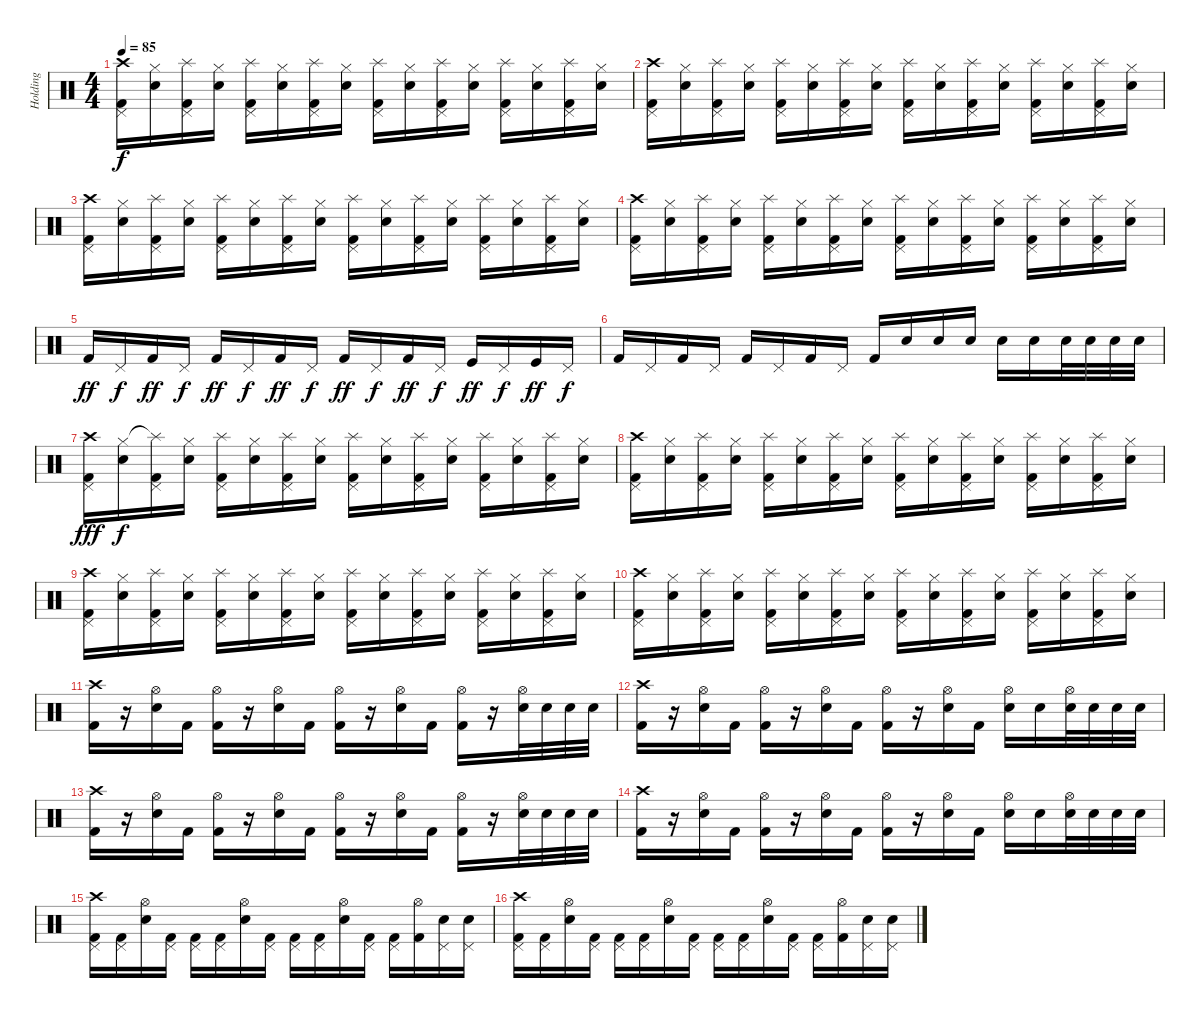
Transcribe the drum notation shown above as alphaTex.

\track ("Holding" "Holding") {instrument percussion}
\staff {score}
\articulation defaults
\ts (4 4)
\tempo 85
\clef neutral
\ks c
("Crash high (hit)" "Pedal Hi-Hat (hit)" "Kick (hit) 2").16{dy f} ("Hi-Hat (closed)" "Electric Snare (hit)").16 ("Splash (hit)" "Pedal Hi-Hat (hit)" "Kick (hit) 2").16 ("Hi-Hat (closed)" "Electric Snare (hit)").16 ("Splash (hit)" "Pedal Hi-Hat (hit)" "Kick (hit) 2").16 ("Hi-Hat (closed)" "Electric Snare (hit)").16 ("Splash (hit)" "Pedal Hi-Hat (hit)" "Kick (hit) 2").16 ("Hi-Hat (closed)" "Electric Snare (hit)").16 ("Splash (hit)" "Pedal Hi-Hat (hit)" "Kick (hit) 2").16 ("Hi-Hat (closed)" "Electric Snare (hit)").16 ("Splash (hit)" "Pedal Hi-Hat (hit)" "Kick (hit) 2").16 ("Hi-Hat (closed)" "Electric Snare (hit)").16 ("Splash (hit)" "Pedal Hi-Hat (hit)" "Kick (hit) 2").16 ("Hi-Hat (closed)" "Electric Snare (hit)").16 ("Splash (hit)" "Pedal Hi-Hat (hit)" "Kick (hit) 2").16 ("Hi-Hat (closed)" "Electric Snare (hit)").16 |
("Crash high (hit)" "Pedal Hi-Hat (hit)" "Kick (hit) 2").16 ("Hi-Hat (closed)" "Electric Snare (hit)").16 ("Splash (hit)" "Pedal Hi-Hat (hit)" "Kick (hit) 2").16 ("Hi-Hat (closed)" "Electric Snare (hit)").16 ("Splash (hit)" "Pedal Hi-Hat (hit)" "Kick (hit) 2").16 ("Hi-Hat (closed)" "Electric Snare (hit)").16 ("Splash (hit)" "Pedal Hi-Hat (hit)" "Kick (hit) 2").16 ("Hi-Hat (closed)" "Electric Snare (hit)").16 ("Splash (hit)" "Pedal Hi-Hat (hit)" "Kick (hit) 2").16 ("Hi-Hat (closed)" "Electric Snare (hit)").16 ("Splash (hit)" "Pedal Hi-Hat (hit)" "Kick (hit) 2").16 ("Hi-Hat (closed)" "Electric Snare (hit)").16 ("Splash (hit)" "Pedal Hi-Hat (hit)" "Kick (hit) 2").16 ("Hi-Hat (closed)" "Electric Snare (hit)").16 ("Splash (hit)" "Pedal Hi-Hat (hit)" "Kick (hit) 2").16 ("Hi-Hat (closed)" "Electric Snare (hit)").16 |
("Crash high (hit)" "Pedal Hi-Hat (hit)" "Kick (hit) 2").16 ("Hi-Hat (closed)" "Electric Snare (hit)").16 ("Splash (hit)" "Pedal Hi-Hat (hit)" "Kick (hit) 2").16 ("Hi-Hat (closed)" "Electric Snare (hit)").16 ("Splash (hit)" "Pedal Hi-Hat (hit)" "Kick (hit) 2").16 ("Hi-Hat (closed)" "Electric Snare (hit)").16 ("Splash (hit)" "Pedal Hi-Hat (hit)" "Kick (hit) 2").16 ("Hi-Hat (closed)" "Electric Snare (hit)").16 ("Splash (hit)" "Pedal Hi-Hat (hit)" "Kick (hit) 2").16 ("Hi-Hat (closed)" "Electric Snare (hit)").16 ("Splash (hit)" "Pedal Hi-Hat (hit)" "Kick (hit) 2").16 ("Hi-Hat (closed)" "Electric Snare (hit)").16 ("Splash (hit)" "Pedal Hi-Hat (hit)" "Kick (hit) 2").16 ("Hi-Hat (closed)" "Electric Snare (hit)").16 ("Splash (hit)" "Pedal Hi-Hat (hit)" "Kick (hit) 2").16 ("Hi-Hat (closed)" "Electric Snare (hit)").16 |
("Crash high (hit)" "Pedal Hi-Hat (hit)" "Kick (hit) 2").16 ("Hi-Hat (closed)" "Electric Snare (hit)").16 ("Splash (hit)" "Pedal Hi-Hat (hit)" "Kick (hit) 2").16 ("Hi-Hat (closed)" "Electric Snare (hit)").16 ("Splash (hit)" "Pedal Hi-Hat (hit)" "Kick (hit) 2").16 ("Hi-Hat (closed)" "Electric Snare (hit)").16 ("Splash (hit)" "Pedal Hi-Hat (hit)" "Kick (hit) 2").16 ("Hi-Hat (closed)" "Electric Snare (hit)").16 ("Splash (hit)" "Pedal Hi-Hat (hit)" "Kick (hit) 2").16 ("Hi-Hat (closed)" "Electric Snare (hit)").16 ("Splash (hit)" "Pedal Hi-Hat (hit)" "Kick (hit) 2").16 ("Hi-Hat (closed)" "Electric Snare (hit)").16 ("Splash (hit)" "Pedal Hi-Hat (hit)" "Kick (hit) 2").16 ("Hi-Hat (closed)" "Electric Snare (hit)").16 ("Splash (hit)" "Pedal Hi-Hat (hit)" "Kick (hit) 2").16 ("Hi-Hat (closed)" "Electric Snare (hit)").16 |
"Kick (hit) 2".16{dy ff} "Pedal Hi-Hat (hit)".16{dy f} "Kick (hit) 2".16{dy ff} "Pedal Hi-Hat (hit)".16{dy f} "Kick (hit) 2".16{dy ff} "Pedal Hi-Hat (hit)".16{dy f} "Kick (hit) 2".16{dy ff} "Pedal Hi-Hat (hit)".16{dy f} "Kick (hit) 2".16{dy ff} "Pedal Hi-Hat (hit)".16{dy f} "Kick (hit) 2".16{dy ff} "Pedal Hi-Hat (hit)".16{dy f} "Kick (hit)".16{dy ff} "Pedal Hi-Hat (hit)".16{dy f} "Kick (hit)".16{dy ff} "Pedal Hi-Hat (hit)".16{dy f} |
"Kick (hit) 2".16 "Pedal Hi-Hat (hit)".16 "Kick (hit) 2".16 "Pedal Hi-Hat (hit)".16 "Kick (hit) 2".16 "Pedal Hi-Hat (hit)".16 "Kick (hit) 2".16 "Pedal Hi-Hat (hit)".16 "Kick (hit) 2".16 "Electric Snare (hit)".16 "Electric Snare (hit)".16 "Electric Snare (hit)".16 "Electric Snare (hit)".16 "Electric Snare (hit)".16 "Electric Snare (hit)".32 "Electric Snare (hit)".32 "Electric Snare (hit)".32 "Electric Snare (hit)".32 |
("Crash high (hit)" "Pedal Hi-Hat (hit)" "Kick (hit) 2").16{dy fff} ("Hi-Hat (closed)" "Electric Snare (hit)").16{dy f} ("Splash (hit)"{t} "Pedal Hi-Hat (hit)" "Kick (hit) 2").16 ("Hi-Hat (closed)" "Electric Snare (hit)").16 ("Splash (hit)" "Pedal Hi-Hat (hit)" "Kick (hit) 2").16 ("Hi-Hat (closed)" "Electric Snare (hit)").16 ("Splash (hit)" "Pedal Hi-Hat (hit)" "Kick (hit) 2").16 ("Hi-Hat (closed)" "Electric Snare (hit)").16 ("Splash (hit)" "Pedal Hi-Hat (hit)" "Kick (hit) 2").16 ("Hi-Hat (closed)" "Electric Snare (hit)").16 ("Splash (hit)" "Pedal Hi-Hat (hit)" "Kick (hit) 2").16 ("Hi-Hat (closed)" "Electric Snare (hit)").16 ("Splash (hit)" "Pedal Hi-Hat (hit)" "Kick (hit) 2").16 ("Hi-Hat (closed)" "Electric Snare (hit)").16 ("Splash (hit)" "Pedal Hi-Hat (hit)" "Kick (hit) 2").16 ("Hi-Hat (closed)" "Electric Snare (hit)").16 |
("Crash high (hit)" "Pedal Hi-Hat (hit)" "Kick (hit) 2").16 ("Hi-Hat (closed)" "Electric Snare (hit)").16 ("Splash (hit)" "Pedal Hi-Hat (hit)" "Kick (hit) 2").16 ("Hi-Hat (closed)" "Electric Snare (hit)").16 ("Splash (hit)" "Pedal Hi-Hat (hit)" "Kick (hit) 2").16 ("Hi-Hat (closed)" "Electric Snare (hit)").16 ("Splash (hit)" "Pedal Hi-Hat (hit)" "Kick (hit) 2").16 ("Hi-Hat (closed)" "Electric Snare (hit)").16 ("Splash (hit)" "Pedal Hi-Hat (hit)" "Kick (hit) 2").16 ("Hi-Hat (closed)" "Electric Snare (hit)").16 ("Splash (hit)" "Pedal Hi-Hat (hit)" "Kick (hit) 2").16 ("Hi-Hat (closed)" "Electric Snare (hit)").16 ("Splash (hit)" "Pedal Hi-Hat (hit)" "Kick (hit) 2").16 ("Hi-Hat (closed)" "Electric Snare (hit)").16 ("Splash (hit)" "Pedal Hi-Hat (hit)" "Kick (hit) 2").16 ("Hi-Hat (closed)" "Electric Snare (hit)").16 |
("Crash high (hit)" "Pedal Hi-Hat (hit)" "Kick (hit) 2").16 ("Hi-Hat (closed)" "Electric Snare (hit)").16 ("Splash (hit)" "Pedal Hi-Hat (hit)" "Kick (hit) 2").16 ("Hi-Hat (closed)" "Electric Snare (hit)").16 ("Splash (hit)" "Pedal Hi-Hat (hit)" "Kick (hit) 2").16 ("Hi-Hat (closed)" "Electric Snare (hit)").16 ("Splash (hit)" "Pedal Hi-Hat (hit)" "Kick (hit) 2").16 ("Hi-Hat (closed)" "Electric Snare (hit)").16 ("Splash (hit)" "Pedal Hi-Hat (hit)" "Kick (hit) 2").16 ("Hi-Hat (closed)" "Electric Snare (hit)").16 ("Splash (hit)" "Pedal Hi-Hat (hit)" "Kick (hit) 2").16 ("Hi-Hat (closed)" "Electric Snare (hit)").16 ("Splash (hit)" "Pedal Hi-Hat (hit)" "Kick (hit) 2").16 ("Hi-Hat (closed)" "Electric Snare (hit)").16 ("Splash (hit)" "Pedal Hi-Hat (hit)" "Kick (hit) 2").16 ("Hi-Hat (closed)" "Electric Snare (hit)").16 |
("Crash high (hit)" "Pedal Hi-Hat (hit)" "Kick (hit) 2").16 ("Hi-Hat (closed)" "Electric Snare (hit)").16 ("Splash (hit)" "Pedal Hi-Hat (hit)" "Kick (hit) 2").16 ("Hi-Hat (closed)" "Electric Snare (hit)").16 ("Splash (hit)" "Pedal Hi-Hat (hit)" "Kick (hit) 2").16 ("Hi-Hat (closed)" "Electric Snare (hit)").16 ("Splash (hit)" "Pedal Hi-Hat (hit)" "Kick (hit) 2").16 ("Hi-Hat (closed)" "Electric Snare (hit)").16 ("Splash (hit)" "Pedal Hi-Hat (hit)" "Kick (hit) 2").16 ("Hi-Hat (closed)" "Electric Snare (hit)").16 ("Splash (hit)" "Pedal Hi-Hat (hit)" "Kick (hit) 2").16 ("Hi-Hat (closed)" "Electric Snare (hit)").16 ("Splash (hit)" "Pedal Hi-Hat (hit)" "Kick (hit) 2").16 ("Hi-Hat (closed)" "Electric Snare (hit)").16 ("Splash (hit)" "Pedal Hi-Hat (hit)" "Kick (hit) 2").16 ("Hi-Hat (closed)" "Electric Snare (hit)").16 |
("Crash high (hit)" "Kick (hit) 2").16 r.16 ("Hi-Hat (open)" "Electric Snare (hit)").16 "Kick (hit) 2".16 ("Hi-Hat (open)" "Kick (hit) 2").16 r.16 ("Hi-Hat (open)" "Electric Snare (hit)").16 "Kick (hit) 2".16 ("Hi-Hat (open)" "Kick (hit) 2").16 r.16 ("Hi-Hat (open)" "Electric Snare (hit)").16 "Kick (hit) 2".16 ("Hi-Hat (open)" "Kick (hit) 2").16 r.16 ("Hi-Hat (open)" "Electric Snare (hit)").32 "Electric Snare (hit)".32 "Electric Snare (hit)".32 "Electric Snare (hit)".32 |
("Crash high (hit)" "Kick (hit) 2").16 r.16 ("Hi-Hat (open)" "Electric Snare (hit)").16 "Kick (hit) 2".16 ("Hi-Hat (open)" "Kick (hit) 2").16 r.16 ("Hi-Hat (open)" "Electric Snare (hit)").16 "Kick (hit) 2".16 ("Hi-Hat (open)" "Kick (hit) 2").16 r.16 ("Hi-Hat (open)" "Electric Snare (hit)").16 "Kick (hit) 2".16 ("Hi-Hat (open)" "Electric Snare (hit)").16 "Electric Snare (hit)".16 ("Hi-Hat (open)" "Electric Snare (hit)").32 "Electric Snare (hit)".32 "Electric Snare (hit)".32 "Electric Snare (hit)".32 |
("Crash high (hit)" "Kick (hit) 2").16 r.16 ("Hi-Hat (open)" "Electric Snare (hit)").16 "Kick (hit) 2".16 ("Hi-Hat (open)" "Kick (hit) 2").16 r.16 ("Hi-Hat (open)" "Electric Snare (hit)").16 "Kick (hit) 2".16 ("Hi-Hat (open)" "Kick (hit) 2").16 r.16 ("Hi-Hat (open)" "Electric Snare (hit)").16 "Kick (hit) 2".16 ("Hi-Hat (open)" "Kick (hit) 2").16 r.16 ("Hi-Hat (open)" "Electric Snare (hit)").32 "Electric Snare (hit)".32 "Electric Snare (hit)".32 "Electric Snare (hit)".32 |
("Crash high (hit)" "Kick (hit) 2").16 r.16 ("Hi-Hat (open)" "Electric Snare (hit)").16 "Kick (hit) 2".16 ("Hi-Hat (open)" "Kick (hit) 2").16 r.16 ("Hi-Hat (open)" "Electric Snare (hit)").16 "Kick (hit) 2".16 ("Hi-Hat (open)" "Kick (hit) 2").16 r.16 ("Hi-Hat (open)" "Electric Snare (hit)").16 "Kick (hit) 2".16 ("Hi-Hat (open)" "Electric Snare (hit)").16 "Electric Snare (hit)".16 ("Hi-Hat (open)" "Electric Snare (hit)").32 "Electric Snare (hit)".32 "Electric Snare (hit)".32 "Electric Snare (hit)".32 |
("Crash high (hit)" "Pedal Hi-Hat (hit)" "Kick (hit) 2").16 ("Pedal Hi-Hat (hit)" "Kick (hit) 2").16 ("Hi-Hat (open)" "Electric Snare (hit)").16 ("Pedal Hi-Hat (hit)" "Kick (hit) 2").16 ("Pedal Hi-Hat (hit)" "Kick (hit) 2").16 ("Pedal Hi-Hat (hit)" "Kick (hit) 2").16 ("Hi-Hat (open)" "Electric Snare (hit)").16 ("Pedal Hi-Hat (hit)" "Kick (hit) 2").16 ("Pedal Hi-Hat (hit)" "Kick (hit) 2").16 ("Pedal Hi-Hat (hit)" "Kick (hit) 2").16 ("Hi-Hat (open)" "Electric Snare (hit)").16 ("Pedal Hi-Hat (hit)" "Kick (hit) 2").16 ("Pedal Hi-Hat (hit)" "Kick (hit) 2").16 ("Hi-Hat (open)" "Kick (hit) 2").16 ("Pedal Hi-Hat (hit)" "Electric Snare (hit)").16 ("Pedal Hi-Hat (hit)" "Electric Snare (hit)").16 |
("Crash high (hit)" "Pedal Hi-Hat (hit)" "Kick (hit) 2").16 ("Pedal Hi-Hat (hit)" "Kick (hit) 2").16 ("Hi-Hat (open)" "Electric Snare (hit)").16 ("Pedal Hi-Hat (hit)" "Kick (hit) 2").16 ("Pedal Hi-Hat (hit)" "Kick (hit) 2").16 ("Pedal Hi-Hat (hit)" "Kick (hit) 2").16 ("Hi-Hat (open)" "Electric Snare (hit)").16 ("Pedal Hi-Hat (hit)" "Kick (hit) 2").16 ("Pedal Hi-Hat (hit)" "Kick (hit) 2").16 ("Pedal Hi-Hat (hit)" "Kick (hit) 2").16 ("Hi-Hat (open)" "Electric Snare (hit)").16 ("Pedal Hi-Hat (hit)" "Kick (hit) 2").16 ("Pedal Hi-Hat (hit)" "Kick (hit) 2").16 ("Hi-Hat (open)" "Kick (hit) 2").16 ("Pedal Hi-Hat (hit)" "Electric Snare (hit)").16 ("Pedal Hi-Hat (hit)" "Electric Snare (hit)").16
